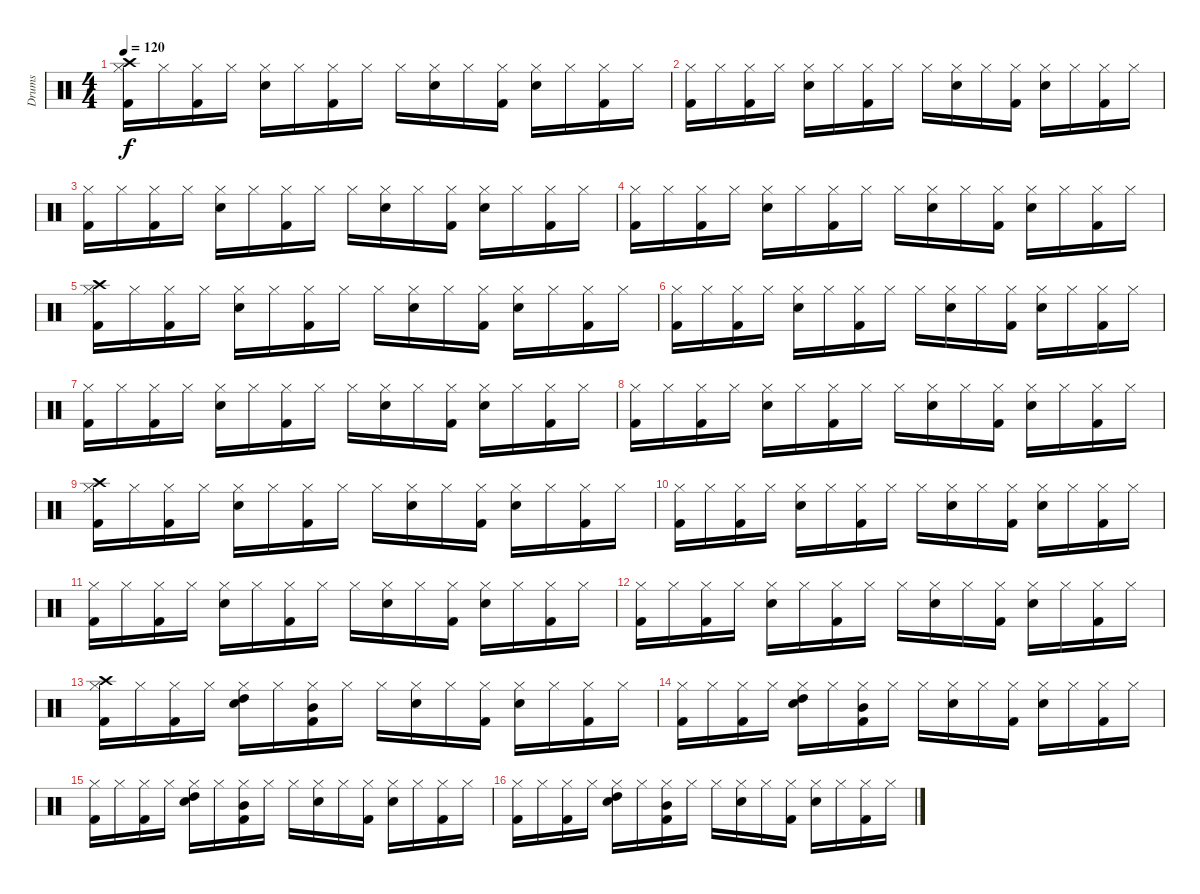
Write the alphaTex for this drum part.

\track ("Drums" "Drums") {instrument percussion}
\staff {score}
\articulation defaults
\ts (4 4)
\tempo 120
\clef neutral
\ks c
("Hi-Hat (closed)" "Crash high (hit)" "Kick (hit) 2").16{dy f} "Hi-Hat (closed)".16 ("Hi-Hat (closed)" "Kick (hit) 2").16 "Hi-Hat (closed)".16 ("Hi-Hat (closed)" "Electric Snare (hit)").16 "Hi-Hat (closed)".16 ("Hi-Hat (closed)" "Kick (hit) 2").16 "Hi-Hat (closed)".16 "Hi-Hat (closed)".16 ("Hi-Hat (closed)" "Electric Snare (hit)").16 "Hi-Hat (closed)".16 ("Hi-Hat (closed)" "Kick (hit) 2").16 ("Hi-Hat (closed)" "Electric Snare (hit)").16 "Hi-Hat (closed)".16 ("Hi-Hat (closed)" "Kick (hit) 2").16 "Hi-Hat (closed)".16 |
("Hi-Hat (closed)" "Kick (hit) 2").16 "Hi-Hat (closed)".16 ("Hi-Hat (closed)" "Kick (hit) 2").16 "Hi-Hat (closed)".16 ("Hi-Hat (closed)" "Electric Snare (hit)").16 "Hi-Hat (closed)".16 ("Hi-Hat (closed)" "Kick (hit) 2").16 "Hi-Hat (closed)".16 "Hi-Hat (closed)".16 ("Hi-Hat (closed)" "Electric Snare (hit)").16 "Hi-Hat (closed)".16 ("Hi-Hat (closed)" "Kick (hit) 2").16 ("Hi-Hat (closed)" "Electric Snare (hit)").16 "Hi-Hat (closed)".16 ("Hi-Hat (closed)" "Kick (hit) 2").16 "Hi-Hat (closed)".16 |
("Hi-Hat (closed)" "Kick (hit) 2").16 "Hi-Hat (closed)".16 ("Hi-Hat (closed)" "Kick (hit) 2").16 "Hi-Hat (closed)".16 ("Hi-Hat (closed)" "Electric Snare (hit)").16 "Hi-Hat (closed)".16 ("Hi-Hat (closed)" "Kick (hit) 2").16 "Hi-Hat (closed)".16 "Hi-Hat (closed)".16 ("Hi-Hat (closed)" "Electric Snare (hit)").16 "Hi-Hat (closed)".16 ("Hi-Hat (closed)" "Kick (hit) 2").16 ("Hi-Hat (closed)" "Electric Snare (hit)").16 "Hi-Hat (closed)".16 ("Hi-Hat (closed)" "Kick (hit) 2").16 "Hi-Hat (closed)".16 |
("Hi-Hat (closed)" "Kick (hit) 2").16 "Hi-Hat (closed)".16 ("Hi-Hat (closed)" "Kick (hit) 2").16 "Hi-Hat (closed)".16 ("Hi-Hat (closed)" "Electric Snare (hit)").16 "Hi-Hat (closed)".16 ("Hi-Hat (closed)" "Kick (hit) 2").16 "Hi-Hat (closed)".16 "Hi-Hat (closed)".16 ("Hi-Hat (closed)" "Electric Snare (hit)").16 "Hi-Hat (closed)".16 ("Hi-Hat (closed)" "Kick (hit) 2").16 ("Hi-Hat (closed)" "Electric Snare (hit)").16 "Hi-Hat (closed)".16 ("Hi-Hat (closed)" "Kick (hit) 2").16 "Hi-Hat (closed)".16 |
("Hi-Hat (closed)" "Crash high (hit)" "Kick (hit) 2").16 "Hi-Hat (closed)".16 ("Hi-Hat (closed)" "Kick (hit) 2").16 "Hi-Hat (closed)".16 ("Hi-Hat (closed)" "Electric Snare (hit)").16 "Hi-Hat (closed)".16 ("Hi-Hat (closed)" "Kick (hit) 2").16 "Hi-Hat (closed)".16 "Hi-Hat (closed)".16 ("Hi-Hat (closed)" "Electric Snare (hit)").16 "Hi-Hat (closed)".16 ("Hi-Hat (closed)" "Kick (hit) 2").16 ("Hi-Hat (closed)" "Electric Snare (hit)").16 "Hi-Hat (closed)".16 ("Hi-Hat (closed)" "Kick (hit) 2").16 "Hi-Hat (closed)".16 |
("Hi-Hat (closed)" "Kick (hit) 2").16 "Hi-Hat (closed)".16 ("Hi-Hat (closed)" "Kick (hit) 2").16 "Hi-Hat (closed)".16 ("Hi-Hat (closed)" "Electric Snare (hit)").16 "Hi-Hat (closed)".16 ("Hi-Hat (closed)" "Kick (hit) 2").16 "Hi-Hat (closed)".16 "Hi-Hat (closed)".16 ("Hi-Hat (closed)" "Electric Snare (hit)").16 "Hi-Hat (closed)".16 ("Hi-Hat (closed)" "Kick (hit) 2").16 ("Hi-Hat (closed)" "Electric Snare (hit)").16 "Hi-Hat (closed)".16 ("Hi-Hat (closed)" "Kick (hit) 2").16 "Hi-Hat (closed)".16 |
("Hi-Hat (closed)" "Kick (hit) 2").16 "Hi-Hat (closed)".16 ("Hi-Hat (closed)" "Kick (hit) 2").16 "Hi-Hat (closed)".16 ("Hi-Hat (closed)" "Electric Snare (hit)").16 "Hi-Hat (closed)".16 ("Hi-Hat (closed)" "Kick (hit) 2").16 "Hi-Hat (closed)".16 "Hi-Hat (closed)".16 ("Hi-Hat (closed)" "Electric Snare (hit)").16 "Hi-Hat (closed)".16 ("Hi-Hat (closed)" "Kick (hit) 2").16 ("Hi-Hat (closed)" "Electric Snare (hit)").16 "Hi-Hat (closed)".16 ("Hi-Hat (closed)" "Kick (hit) 2").16 "Hi-Hat (closed)".16 |
("Hi-Hat (closed)" "Kick (hit) 2").16 "Hi-Hat (closed)".16 ("Hi-Hat (closed)" "Kick (hit) 2").16 "Hi-Hat (closed)".16 ("Hi-Hat (closed)" "Electric Snare (hit)").16 "Hi-Hat (closed)".16 ("Hi-Hat (closed)" "Kick (hit) 2").16 "Hi-Hat (closed)".16 "Hi-Hat (closed)".16 ("Hi-Hat (closed)" "Electric Snare (hit)").16 "Hi-Hat (closed)".16 ("Hi-Hat (closed)" "Kick (hit) 2").16 ("Hi-Hat (closed)" "Electric Snare (hit)").16 "Hi-Hat (closed)".16 ("Hi-Hat (closed)" "Kick (hit) 2").16 "Hi-Hat (closed)".16 |
("Hi-Hat (closed)" "Crash high (hit)" "Kick (hit) 2").16 "Hi-Hat (closed)".16 ("Hi-Hat (closed)" "Kick (hit) 2").16 "Hi-Hat (closed)".16 ("Hi-Hat (closed)" "Electric Snare (hit)").16 "Hi-Hat (closed)".16 ("Hi-Hat (closed)" "Kick (hit) 2").16 "Hi-Hat (closed)".16 "Hi-Hat (closed)".16 ("Hi-Hat (closed)" "Electric Snare (hit)").16 "Hi-Hat (closed)".16 ("Hi-Hat (closed)" "Kick (hit) 2").16 ("Hi-Hat (closed)" "Electric Snare (hit)").16 "Hi-Hat (closed)".16 ("Hi-Hat (closed)" "Kick (hit) 2").16 "Hi-Hat (closed)".16 |
("Hi-Hat (closed)" "Kick (hit) 2").16 "Hi-Hat (closed)".16 ("Hi-Hat (closed)" "Kick (hit) 2").16 "Hi-Hat (closed)".16 ("Hi-Hat (closed)" "Electric Snare (hit)").16 "Hi-Hat (closed)".16 ("Hi-Hat (closed)" "Kick (hit) 2").16 "Hi-Hat (closed)".16 "Hi-Hat (closed)".16 ("Hi-Hat (closed)" "Electric Snare (hit)").16 "Hi-Hat (closed)".16 ("Hi-Hat (closed)" "Kick (hit) 2").16 ("Hi-Hat (closed)" "Electric Snare (hit)").16 "Hi-Hat (closed)".16 ("Hi-Hat (closed)" "Kick (hit) 2").16 "Hi-Hat (closed)".16 |
("Hi-Hat (closed)" "Kick (hit) 2").16 "Hi-Hat (closed)".16 ("Hi-Hat (closed)" "Kick (hit) 2").16 "Hi-Hat (closed)".16 ("Hi-Hat (closed)" "Electric Snare (hit)").16 "Hi-Hat (closed)".16 ("Hi-Hat (closed)" "Kick (hit) 2").16 "Hi-Hat (closed)".16 "Hi-Hat (closed)".16 ("Hi-Hat (closed)" "Electric Snare (hit)").16 "Hi-Hat (closed)".16 ("Hi-Hat (closed)" "Kick (hit) 2").16 ("Hi-Hat (closed)" "Electric Snare (hit)").16 "Hi-Hat (closed)".16 ("Hi-Hat (closed)" "Kick (hit) 2").16 "Hi-Hat (closed)".16 |
("Hi-Hat (closed)" "Kick (hit) 2").16 "Hi-Hat (closed)".16 ("Hi-Hat (closed)" "Kick (hit) 2").16 "Hi-Hat (closed)".16 ("Hi-Hat (closed)" "Electric Snare (hit)").16 "Hi-Hat (closed)".16 ("Hi-Hat (closed)" "Kick (hit) 2").16 "Hi-Hat (closed)".16 "Hi-Hat (closed)".16 ("Hi-Hat (closed)" "Electric Snare (hit)").16 "Hi-Hat (closed)".16 ("Hi-Hat (closed)" "Kick (hit) 2").16 ("Hi-Hat (closed)" "Electric Snare (hit)").16 "Hi-Hat (closed)".16 ("Hi-Hat (closed)" "Kick (hit) 2").16 "Hi-Hat (closed)".16 |
("Hi-Hat (closed)" "Crash high (hit)" "Kick (hit) 2").16 "Hi-Hat (closed)".16 ("Hi-Hat (closed)" "Kick (hit) 2").16 "Hi-Hat (closed)".16 ("Hi-Hat (closed)" "High Tom (hit)" "Electric Snare (hit)").16 "Hi-Hat (closed)".16 ("Hi-Hat (closed)" "Mid Tom (hit)" "Kick (hit) 2").16 "Hi-Hat (closed)".16 "Hi-Hat (closed)".16 ("Hi-Hat (closed)" "Electric Snare (hit)").16 "Hi-Hat (closed)".16 ("Hi-Hat (closed)" "Kick (hit) 2").16 ("Hi-Hat (closed)" "Electric Snare (hit)").16 "Hi-Hat (closed)".16 ("Hi-Hat (closed)" "Kick (hit) 2").16 "Hi-Hat (closed)".16 |
("Hi-Hat (closed)" "Kick (hit) 2").16 "Hi-Hat (closed)".16 ("Hi-Hat (closed)" "Kick (hit) 2").16 "Hi-Hat (closed)".16 ("Hi-Hat (closed)" "High Tom (hit)" "Electric Snare (hit)").16 "Hi-Hat (closed)".16 ("Hi-Hat (closed)" "Mid Tom (hit)" "Kick (hit) 2").16 "Hi-Hat (closed)".16 "Hi-Hat (closed)".16 ("Hi-Hat (closed)" "Electric Snare (hit)").16 "Hi-Hat (closed)".16 ("Hi-Hat (closed)" "Kick (hit) 2").16 ("Hi-Hat (closed)" "Electric Snare (hit)").16 "Hi-Hat (closed)".16 ("Hi-Hat (closed)" "Kick (hit) 2").16 "Hi-Hat (closed)".16 |
("Hi-Hat (closed)" "Kick (hit) 2").16 "Hi-Hat (closed)".16 ("Hi-Hat (closed)" "Kick (hit) 2").16 "Hi-Hat (closed)".16 ("Hi-Hat (closed)" "High Tom (hit)" "Electric Snare (hit)").16 "Hi-Hat (closed)".16 ("Hi-Hat (closed)" "Mid Tom (hit)" "Kick (hit) 2").16 "Hi-Hat (closed)".16 "Hi-Hat (closed)".16 ("Hi-Hat (closed)" "Electric Snare (hit)").16 "Hi-Hat (closed)".16 ("Hi-Hat (closed)" "Kick (hit) 2").16 ("Hi-Hat (closed)" "Electric Snare (hit)").16 "Hi-Hat (closed)".16 ("Hi-Hat (closed)" "Kick (hit) 2").16 "Hi-Hat (closed)".16 |
("Hi-Hat (closed)" "Kick (hit) 2").16 "Hi-Hat (closed)".16 ("Hi-Hat (closed)" "Kick (hit) 2").16 "Hi-Hat (closed)".16 ("Hi-Hat (closed)" "High Tom (hit)" "Electric Snare (hit)").16 "Hi-Hat (closed)".16 ("Hi-Hat (closed)" "Mid Tom (hit)" "Kick (hit) 2").16 "Hi-Hat (closed)".16 "Hi-Hat (closed)".16 ("Hi-Hat (closed)" "Electric Snare (hit)").16 "Hi-Hat (closed)".16 ("Hi-Hat (closed)" "Kick (hit) 2").16 ("Hi-Hat (closed)" "Electric Snare (hit)").16 "Hi-Hat (closed)".16 ("Hi-Hat (closed)" "Kick (hit) 2").16 "Hi-Hat (closed)".16
